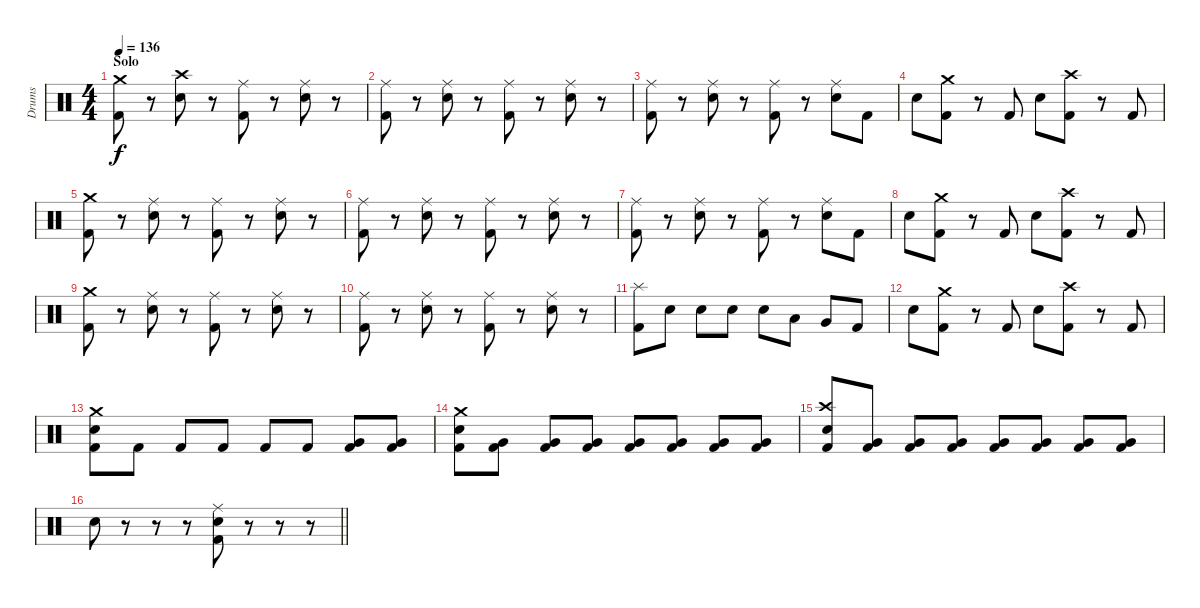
\track ("Drums" "Drums") {instrument percussion}
\staff {score}
\articulation defaults
\ts (4 4)
\section ("" "Solo")
\tempo 136
\clef neutral
\ks c
("Crash medium (hit)" "Kick (hit) 2").8{dy f} r.8 ("Crash high (hit)" "Electric Snare (hit)").8 r.8 ("Ride (middle)" "Kick (hit) 2").8 r.8 ("Ride (middle)" "Electric Snare (hit)").8 r.8 |
("Ride (middle)" "Kick (hit) 2").8 r.8 ("Ride (middle)" "Electric Snare (hit)").8 r.8 ("Ride (middle)" "Kick (hit) 2").8 r.8 ("Ride (middle)" "Electric Snare (hit)").8 r.8 |
("Ride (middle)" "Kick (hit) 2").8 r.8 ("Ride (middle)" "Electric Snare (hit)").8 r.8 ("Ride (middle)" "Kick (hit) 2").8 r.8 ("Ride (middle)" "Electric Snare (hit)").8 "Kick (hit) 2".8 |
"Electric Snare (hit)".8 ("Crash medium (hit)" "Kick (hit) 2").8 r.8 "Kick (hit) 2".8 "Electric Snare (hit)".8 ("Crash high (hit)" "Kick (hit) 2").8 r.8 "Kick (hit) 2".8 |
("Crash medium (hit)" "Kick (hit) 2").8 r.8 ("Ride (middle)" "Electric Snare (hit)").8 r.8 ("Ride (middle)" "Kick (hit) 2").8 r.8 ("Ride (middle)" "Electric Snare (hit)").8 r.8 |
("Ride (middle)" "Kick (hit) 2").8 r.8 ("Ride (middle)" "Electric Snare (hit)").8 r.8 ("Ride (middle)" "Kick (hit) 2").8 r.8 ("Ride (middle)" "Electric Snare (hit)").8 r.8 |
("Ride (middle)" "Kick (hit) 2").8 r.8 ("Ride (middle)" "Electric Snare (hit)").8 r.8 ("Ride (middle)" "Kick (hit) 2").8 r.8 ("Ride (middle)" "Electric Snare (hit)").8 "Kick (hit) 2".8 |
"Electric Snare (hit)".8 ("Crash medium (hit)" "Kick (hit) 2").8 r.8 "Kick (hit) 2".8 "Electric Snare (hit)".8 ("Crash high (hit)" "Kick (hit) 2").8 r.8 "Kick (hit) 2".8 |
("Crash medium (hit)" "Kick (hit) 2").8 r.8 ("Ride (middle)" "Electric Snare (hit)").8 r.8 ("Ride (middle)" "Kick (hit) 2").8 r.8 ("Ride (middle)" "Electric Snare (hit)").8 r.8 |
("Ride (middle)" "Kick (hit) 2").8 r.8 ("Ride (middle)" "Electric Snare (hit)").8 r.8 ("Ride (middle)" "Kick (hit) 2").8 r.8 ("Ride (middle)" "Electric Snare (hit)").8 r.8 |
("Splash (hit)" "Kick (hit) 2").8 "Electric Snare (hit)".8 "Electric Snare (hit)".8 "Electric Snare (hit)".8 "Electric Snare (hit)".8 "Low Tom (hit)".8 "Very Low Tom (hit)".8 "Kick (hit) 2".8 |
"Electric Snare (hit)".8 ("Crash medium (hit)" "Kick (hit) 2").8 r.8 "Kick (hit) 2".8 "Electric Snare (hit)".8 ("Crash high (hit)" "Kick (hit) 2").8 r.8 "Kick (hit) 2".8 |
("Crash medium (hit)" "Electric Snare (hit)" "Kick (hit) 2").8 "Kick (hit) 2".8 "Kick (hit) 2".8 "Kick (hit) 2".8 "Kick (hit) 2".8 "Kick (hit) 2".8 ("Very Low Tom (hit)" "Kick (hit) 2").8 ("Very Low Tom (hit)" "Kick (hit) 2").8 |
("Crash medium (hit)" "Electric Snare (hit)" "Kick (hit) 2").8 ("Very Low Tom (hit)" "Kick (hit) 2").8 ("Very Low Tom (hit)" "Kick (hit) 2").8 ("Very Low Tom (hit)" "Kick (hit) 2").8 ("Very Low Tom (hit)" "Kick (hit) 2").8 ("Very Low Tom (hit)" "Kick (hit) 2").8 ("Very Low Tom (hit)" "Kick (hit) 2").8 ("Very Low Tom (hit)" "Kick (hit) 2").8 |
("Crash high (hit)" "Electric Snare (hit)" "Kick (hit) 2").8 ("Very Low Tom (hit)" "Kick (hit) 2").8 ("Very Low Tom (hit)" "Kick (hit) 2").8 ("Very Low Tom (hit)" "Kick (hit) 2").8 ("Very Low Tom (hit)" "Kick (hit) 2").8 ("Very Low Tom (hit)" "Kick (hit) 2").8 ("Very Low Tom (hit)" "Kick (hit) 2").8 ("Very Low Tom (hit)" "Kick (hit) 2").8 |
\barLineRight lightlight "Electric Snare (hit)".8
r.8 r.8 r.8 ("Ride (middle)" "Electric Snare (hit)" "Kick (hit) 2").8 r.8 r.8 r.8
